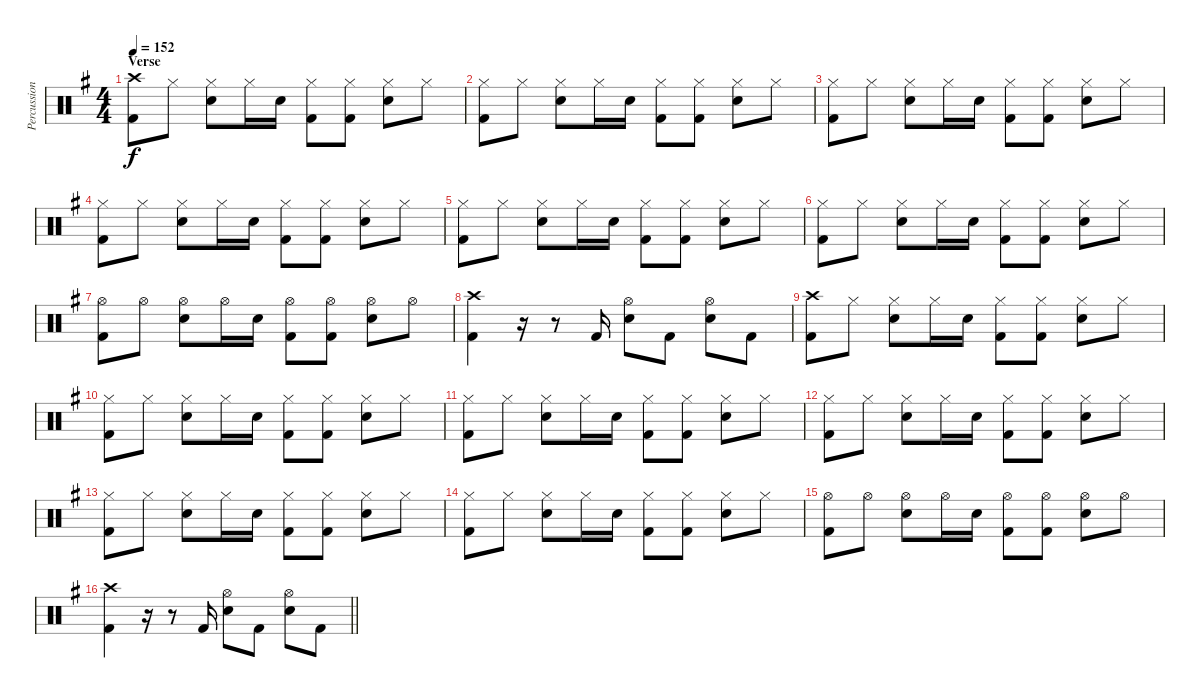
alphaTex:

\track ("Percussion" "Percussion") {instrument percussion}
\staff {score}
\articulation defaults
\ts (4 4)
\section ("" "Verse")
\tempo 152
\clef neutral
\ks eminor
("Crash high (hit)" "Kick (hit) 2").8{dy f} "Hi-Hat (closed)".8 ("Hi-Hat (closed)" "Snare (hit) 2").8 "Hi-Hat (closed)".16 "Snare (hit) 2".16 ("Hi-Hat (closed)" "Kick (hit) 2").8 ("Hi-Hat (closed)" "Kick (hit) 2").8 ("Hi-Hat (closed)" "Snare (hit) 2").8 "Hi-Hat (closed)".8 |
("Hi-Hat (closed)" "Kick (hit) 2").8 "Hi-Hat (closed)".8 ("Hi-Hat (closed)" "Snare (hit) 2").8 "Hi-Hat (closed)".16 "Snare (hit) 2".16 ("Hi-Hat (closed)" "Kick (hit) 2").8 ("Hi-Hat (closed)" "Kick (hit) 2").8 ("Hi-Hat (closed)" "Snare (hit) 2").8 "Hi-Hat (closed)".8 |
("Hi-Hat (closed)" "Kick (hit) 2").8 "Hi-Hat (closed)".8 ("Hi-Hat (closed)" "Snare (hit) 2").8 "Hi-Hat (closed)".16 "Snare (hit) 2".16 ("Hi-Hat (closed)" "Kick (hit) 2").8 ("Hi-Hat (closed)" "Kick (hit) 2").8 ("Hi-Hat (closed)" "Snare (hit) 2").8 "Hi-Hat (closed)".8 |
("Hi-Hat (closed)" "Kick (hit) 2").8 "Hi-Hat (closed)".8 ("Hi-Hat (closed)" "Snare (hit) 2").8 "Hi-Hat (closed)".16 "Snare (hit) 2".16 ("Hi-Hat (closed)" "Kick (hit) 2").8 ("Hi-Hat (closed)" "Kick (hit) 2").8 ("Hi-Hat (closed)" "Snare (hit) 2").8 "Hi-Hat (closed)".8 |
("Hi-Hat (closed)" "Kick (hit) 2").8 "Hi-Hat (closed)".8 ("Hi-Hat (closed)" "Snare (hit) 2").8 "Hi-Hat (closed)".16 "Snare (hit) 2".16 ("Hi-Hat (closed)" "Kick (hit) 2").8 ("Hi-Hat (closed)" "Kick (hit) 2").8 ("Hi-Hat (closed)" "Snare (hit) 2").8 "Hi-Hat (closed)".8 |
("Hi-Hat (closed)" "Kick (hit) 2").8 "Hi-Hat (closed)".8 ("Hi-Hat (closed)" "Snare (hit) 2").8 "Hi-Hat (closed)".16 "Snare (hit) 2".16 ("Hi-Hat (closed)" "Kick (hit) 2").8 ("Hi-Hat (closed)" "Kick (hit) 2").8 ("Hi-Hat (closed)" "Snare (hit) 2").8 "Hi-Hat (closed)".8 |
("Hi-Hat (open)" "Kick (hit) 2").8 "Hi-Hat (open)".8 ("Hi-Hat (open)" "Snare (hit) 2").8 "Hi-Hat (open)".16 "Snare (hit) 2".16 ("Hi-Hat (open)" "Kick (hit) 2").8 ("Hi-Hat (open)" "Kick (hit) 2").8 ("Hi-Hat (open)" "Snare (hit) 2").8 "Hi-Hat (open)".8 |
("Crash high (hit)" "Kick (hit) 2").4 r.16 r.8 "Kick (hit) 2".16 ("Hi-Hat (open)" "Snare (hit) 2").8 "Kick (hit) 2".8 ("Hi-Hat (open)" "Snare (hit) 2").8 "Kick (hit) 2".8 |
("Crash high (hit)" "Kick (hit) 2").8 "Hi-Hat (closed)".8 ("Hi-Hat (closed)" "Snare (hit) 2").8 "Hi-Hat (closed)".16 "Snare (hit) 2".16 ("Hi-Hat (closed)" "Kick (hit) 2").8 ("Hi-Hat (closed)" "Kick (hit) 2").8 ("Hi-Hat (closed)" "Snare (hit) 2").8 "Hi-Hat (closed)".8 |
("Hi-Hat (closed)" "Kick (hit) 2").8 "Hi-Hat (closed)".8 ("Hi-Hat (closed)" "Snare (hit) 2").8 "Hi-Hat (closed)".16 "Snare (hit) 2".16 ("Hi-Hat (closed)" "Kick (hit) 2").8 ("Hi-Hat (closed)" "Kick (hit) 2").8 ("Hi-Hat (closed)" "Snare (hit) 2").8 "Hi-Hat (closed)".8 |
("Hi-Hat (closed)" "Kick (hit) 2").8 "Hi-Hat (closed)".8 ("Hi-Hat (closed)" "Snare (hit) 2").8 "Hi-Hat (closed)".16 "Snare (hit) 2".16 ("Hi-Hat (closed)" "Kick (hit) 2").8 ("Hi-Hat (closed)" "Kick (hit) 2").8 ("Hi-Hat (closed)" "Snare (hit) 2").8 "Hi-Hat (closed)".8 |
("Hi-Hat (closed)" "Kick (hit) 2").8 "Hi-Hat (closed)".8 ("Hi-Hat (closed)" "Snare (hit) 2").8 "Hi-Hat (closed)".16 "Snare (hit) 2".16 ("Hi-Hat (closed)" "Kick (hit) 2").8 ("Hi-Hat (closed)" "Kick (hit) 2").8 ("Hi-Hat (closed)" "Snare (hit) 2").8 "Hi-Hat (closed)".8 |
("Hi-Hat (closed)" "Kick (hit) 2").8 "Hi-Hat (closed)".8 ("Hi-Hat (closed)" "Snare (hit) 2").8 "Hi-Hat (closed)".16 "Snare (hit) 2".16 ("Hi-Hat (closed)" "Kick (hit) 2").8 ("Hi-Hat (closed)" "Kick (hit) 2").8 ("Hi-Hat (closed)" "Snare (hit) 2").8 "Hi-Hat (closed)".8 |
("Hi-Hat (closed)" "Kick (hit) 2").8 "Hi-Hat (closed)".8 ("Hi-Hat (closed)" "Snare (hit) 2").8 "Hi-Hat (closed)".16 "Snare (hit) 2".16 ("Hi-Hat (closed)" "Kick (hit) 2").8 ("Hi-Hat (closed)" "Kick (hit) 2").8 ("Hi-Hat (closed)" "Snare (hit) 2").8 "Hi-Hat (closed)".8 |
("Hi-Hat (open)" "Kick (hit) 2").8 "Hi-Hat (open)".8 ("Hi-Hat (open)" "Snare (hit) 2").8 "Hi-Hat (open)".16 "Snare (hit) 2".16 ("Hi-Hat (open)" "Kick (hit) 2").8 ("Hi-Hat (open)" "Kick (hit) 2").8 ("Hi-Hat (open)" "Snare (hit) 2").8 "Hi-Hat (open)".8 |
\barLineRight lightlight
("Crash high (hit)" "Kick (hit) 2").4 r.16 r.8 "Kick (hit) 2".16 ("Hi-Hat (open)" "Snare (hit) 2").8 "Kick (hit) 2".8 ("Hi-Hat (open)" "Snare (hit) 2").8 "Kick (hit) 2".8
